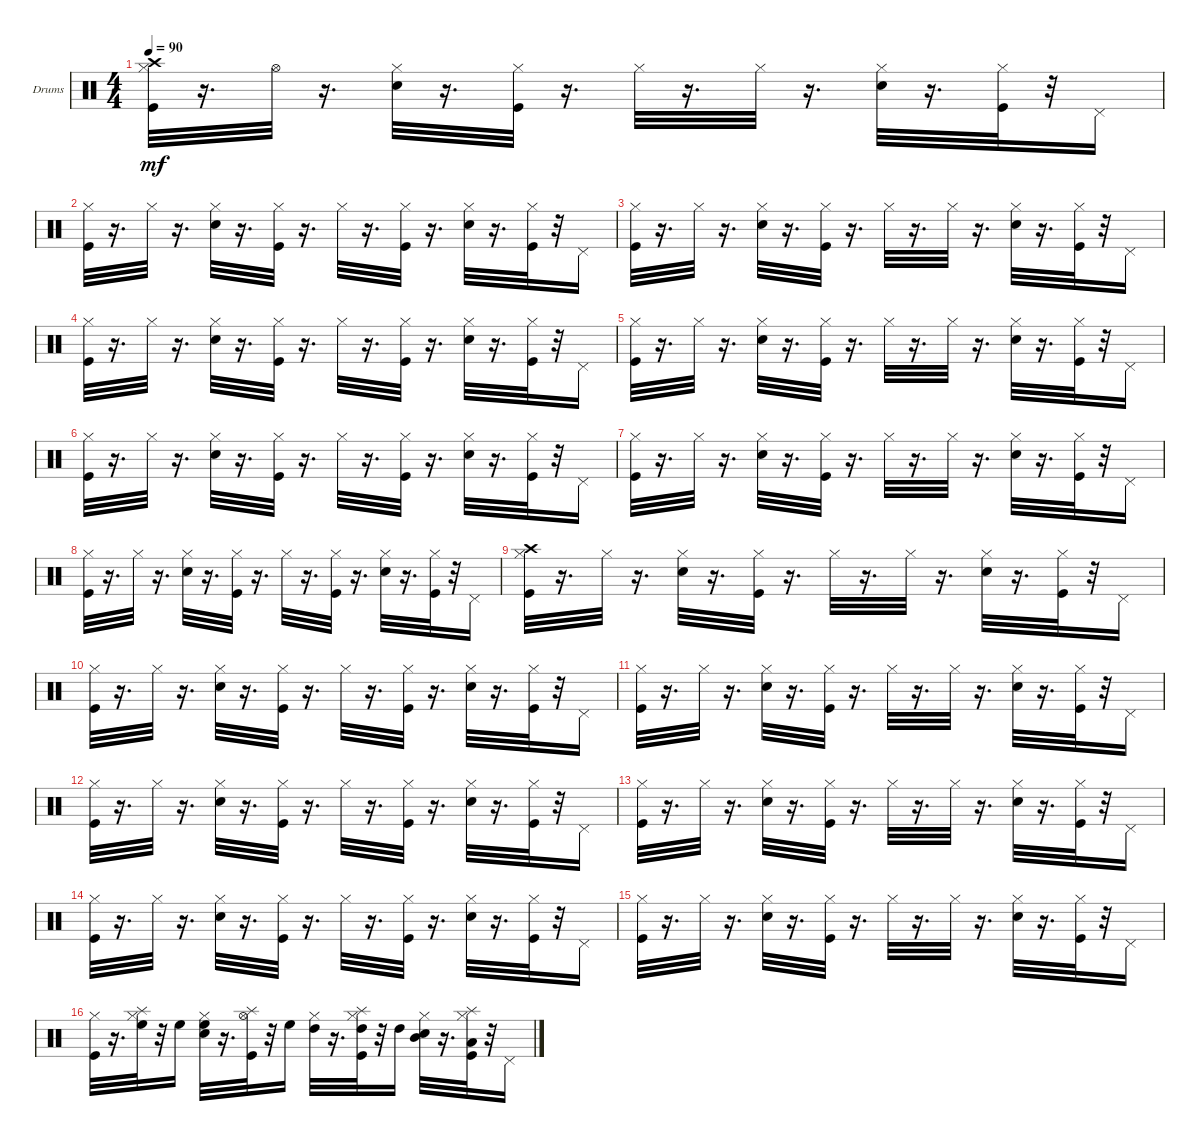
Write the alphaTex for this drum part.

\bracketExtendMode groupsimilarinstruments
\firstSystemTrackNameOrientation horizontal
\otherSystemsTrackNameOrientation horizontal
\track ("Drumkit" "Drums") {instrument percussion}
\staff {score}
\articulation defaults
\ts (4 4)
\tempo 90
\clef neutral
\ks c
("Crash high (hit)" "Kick (hit)" "Hi-Hat (closed)").32{dy mf} r.16{d} "Hi-Hat (open)".32 r.16{d} ("Snare (hit) 2" "Hi-Hat (closed)").32 r.16{d} ("Kick (hit)" "Hi-Hat (closed)").32 r.16{d} "Hi-Hat (closed)".32 r.16{d} "Hi-Hat (closed)".32 r.16{d} ("Snare (hit) 2" "Hi-Hat (closed)").32 r.16{d} ("Kick (hit)" "Hi-Hat (closed)").32 r.32 "Pedal Hi-Hat (hit)".16 |
("Kick (hit)" "Hi-Hat (closed)").32 r.16{d} "Hi-Hat (closed)".32 r.16{d} ("Snare (hit) 2" "Hi-Hat (closed)").32 r.16{d} ("Kick (hit)" "Hi-Hat (closed)").32 r.16{d} "Hi-Hat (closed)".32 r.16{d} ("Kick (hit)" "Hi-Hat (closed)").32 r.16{d} ("Snare (hit) 2" "Hi-Hat (closed)").32 r.16{d} ("Kick (hit)" "Hi-Hat (closed)").32 r.32 "Pedal Hi-Hat (hit)".16 |
("Kick (hit)" "Hi-Hat (closed)").32 r.16{d} "Hi-Hat (closed)".32 r.16{d} ("Snare (hit) 2" "Hi-Hat (closed)").32 r.16{d} ("Kick (hit)" "Hi-Hat (closed)").32 r.16{d} "Hi-Hat (closed)".32 r.16{d} "Hi-Hat (closed)".32 r.16{d} ("Snare (hit) 2" "Hi-Hat (closed)").32 r.16{d} ("Kick (hit)" "Hi-Hat (closed)").32 r.32 "Pedal Hi-Hat (hit)".16 |
("Kick (hit)" "Hi-Hat (closed)").32 r.16{d} "Hi-Hat (closed)".32 r.16{d} ("Snare (hit) 2" "Hi-Hat (closed)").32 r.16{d} ("Kick (hit)" "Hi-Hat (closed)").32 r.16{d} "Hi-Hat (closed)".32 r.16{d} ("Kick (hit)" "Hi-Hat (closed)").32 r.16{d} ("Snare (hit) 2" "Hi-Hat (closed)").32 r.16{d} ("Kick (hit)" "Hi-Hat (closed)").32 r.32 "Pedal Hi-Hat (hit)".16 |
("Kick (hit)" "Hi-Hat (closed)").32 r.16{d} "Hi-Hat (closed)".32 r.16{d} ("Snare (hit) 2" "Hi-Hat (closed)").32 r.16{d} ("Kick (hit)" "Hi-Hat (closed)").32 r.16{d} "Hi-Hat (closed)".32 r.16{d} "Hi-Hat (closed)".32 r.16{d} ("Snare (hit) 2" "Hi-Hat (closed)").32 r.16{d} ("Kick (hit)" "Hi-Hat (closed)").32 r.32 "Pedal Hi-Hat (hit)".16 |
("Kick (hit)" "Hi-Hat (closed)").32 r.16{d} "Hi-Hat (closed)".32 r.16{d} ("Snare (hit) 2" "Hi-Hat (closed)").32 r.16{d} ("Kick (hit)" "Hi-Hat (closed)").32 r.16{d} "Hi-Hat (closed)".32 r.16{d} ("Kick (hit)" "Hi-Hat (closed)").32 r.16{d} ("Snare (hit) 2" "Hi-Hat (closed)").32 r.16{d} ("Kick (hit)" "Hi-Hat (closed)").32 r.32 "Pedal Hi-Hat (hit)".16 |
("Kick (hit)" "Hi-Hat (closed)").32 r.16{d} "Hi-Hat (closed)".32 r.16{d} ("Snare (hit) 2" "Hi-Hat (closed)").32 r.16{d} ("Kick (hit)" "Hi-Hat (closed)").32 r.16{d} "Hi-Hat (closed)".32 r.16{d} "Hi-Hat (closed)".32 r.16{d} ("Snare (hit) 2" "Hi-Hat (closed)").32 r.16{d} ("Kick (hit)" "Hi-Hat (closed)").32 r.32 "Pedal Hi-Hat (hit)".16 |
("Kick (hit)" "Hi-Hat (closed)").32 r.16{d} "Hi-Hat (closed)".32 r.16{d} ("Snare (hit) 2" "Hi-Hat (closed)").32 r.16{d} ("Kick (hit)" "Hi-Hat (closed)").32 r.16{d} "Hi-Hat (closed)".32 r.16{d} ("Kick (hit)" "Hi-Hat (closed)").32 r.16{d} ("Snare (hit) 2" "Hi-Hat (closed)").32 r.16{d} ("Kick (hit)" "Hi-Hat (closed)").32 r.32 "Pedal Hi-Hat (hit)".16 |
("Crash high (hit)" "Hi-Hat (closed)" "Kick (hit)").32 r.16{d} "Hi-Hat (closed)".32 r.16{d} ("Snare (hit) 2" "Hi-Hat (closed)").32 r.16{d} ("Hi-Hat (closed)" "Kick (hit)").32 r.16{d} "Hi-Hat (closed)".32 r.16{d} "Hi-Hat (closed)".32 r.16{d} ("Snare (hit) 2" "Hi-Hat (closed)").32 r.16{d} ("Hi-Hat (closed)" "Kick (hit)").32 r.32 "Pedal Hi-Hat (hit)".16 |
("Kick (hit)" "Hi-Hat (closed)").32 r.16{d} "Hi-Hat (closed)".32 r.16{d} ("Snare (hit) 2" "Hi-Hat (closed)").32 r.16{d} ("Kick (hit)" "Hi-Hat (closed)").32 r.16{d} "Hi-Hat (closed)".32 r.16{d} ("Kick (hit)" "Hi-Hat (closed)").32 r.16{d} ("Snare (hit) 2" "Hi-Hat (closed)").32 r.16{d} ("Kick (hit)" "Hi-Hat (closed)").32 r.32 "Pedal Hi-Hat (hit)".16 |
("Kick (hit)" "Hi-Hat (closed)").32 r.16{d} "Hi-Hat (closed)".32 r.16{d} ("Snare (hit) 2" "Hi-Hat (closed)").32 r.16{d} ("Kick (hit)" "Hi-Hat (closed)").32 r.16{d} "Hi-Hat (closed)".32 r.16{d} "Hi-Hat (closed)".32 r.16{d} ("Snare (hit) 2" "Hi-Hat (closed)").32 r.16{d} ("Kick (hit)" "Hi-Hat (closed)").32 r.32 "Pedal Hi-Hat (hit)".16 |
("Kick (hit)" "Hi-Hat (closed)").32 r.16{d} "Hi-Hat (closed)".32 r.16{d} ("Snare (hit) 2" "Hi-Hat (closed)").32 r.16{d} ("Kick (hit)" "Hi-Hat (closed)").32 r.16{d} "Hi-Hat (closed)".32 r.16{d} ("Kick (hit)" "Hi-Hat (closed)").32 r.16{d} ("Snare (hit) 2" "Hi-Hat (closed)").32 r.16{d} ("Kick (hit)" "Hi-Hat (closed)").32 r.32 "Pedal Hi-Hat (hit)".16 |
("Kick (hit)" "Hi-Hat (closed)").32 r.16{d} "Hi-Hat (closed)".32 r.16{d} ("Snare (hit) 2" "Hi-Hat (closed)").32 r.16{d} ("Kick (hit)" "Hi-Hat (closed)").32 r.16{d} "Hi-Hat (closed)".32 r.16{d} "Hi-Hat (closed)".32 r.16{d} ("Snare (hit) 2" "Hi-Hat (closed)").32 r.16{d} ("Kick (hit)" "Hi-Hat (closed)").32 r.32 "Pedal Hi-Hat (hit)".16 |
("Kick (hit)" "Hi-Hat (closed)").32 r.16{d} "Hi-Hat (closed)".32 r.16{d} ("Snare (hit) 2" "Hi-Hat (closed)").32 r.16{d} ("Kick (hit)" "Hi-Hat (closed)").32 r.16{d} "Hi-Hat (closed)".32 r.16{d} ("Kick (hit)" "Hi-Hat (closed)").32 r.16{d} ("Snare (hit) 2" "Hi-Hat (closed)").32 r.16{d} ("Kick (hit)" "Hi-Hat (closed)").32 r.32 "Pedal Hi-Hat (hit)".16 |
("Kick (hit)" "Hi-Hat (closed)").32 r.16{d} "Hi-Hat (closed)".32 r.16{d} ("Snare (hit) 2" "Hi-Hat (closed)").32 r.16{d} ("Kick (hit)" "Hi-Hat (closed)").32 r.16{d} "Hi-Hat (closed)".32 r.16{d} "Hi-Hat (closed)".32 r.16{d} ("Snare (hit) 2" "Hi-Hat (closed)").32 r.16{d} ("Kick (hit)" "Hi-Hat (closed)").32 r.32 "Pedal Hi-Hat (hit)".16 |
("Kick (hit)" "Hi-Hat (closed)").32 r.16{d} ("High Floor Tom (hit)" "Splash (hit)" "Hi-Hat (closed)").32 r.32 "High Floor Tom (hit)".16 ("High Floor Tom (hit)" "Snare (hit) 2" "Hi-Hat (closed)").32 r.16{d} ("Kick (hit)" "Splash (hit)" "Hi-Hat (open)").32 r.32 "High Floor Tom (hit)".16 ("High Tom (hit)" "Hi-Hat (closed)").32 r.16{d} ("Kick (hit)" "High Tom (hit)" "Splash (hit)" "Hi-Hat (closed)").32 r.32 "High Tom (hit)".16 ("Mid Tom (hit)" "Snare (hit) 2" "Hi-Hat (closed)").32 r.16{d} ("Kick (hit)" "Low Tom (hit)" "Splash (hit)" "Hi-Hat (closed)").32 r.32 "Pedal Hi-Hat (hit)".16
